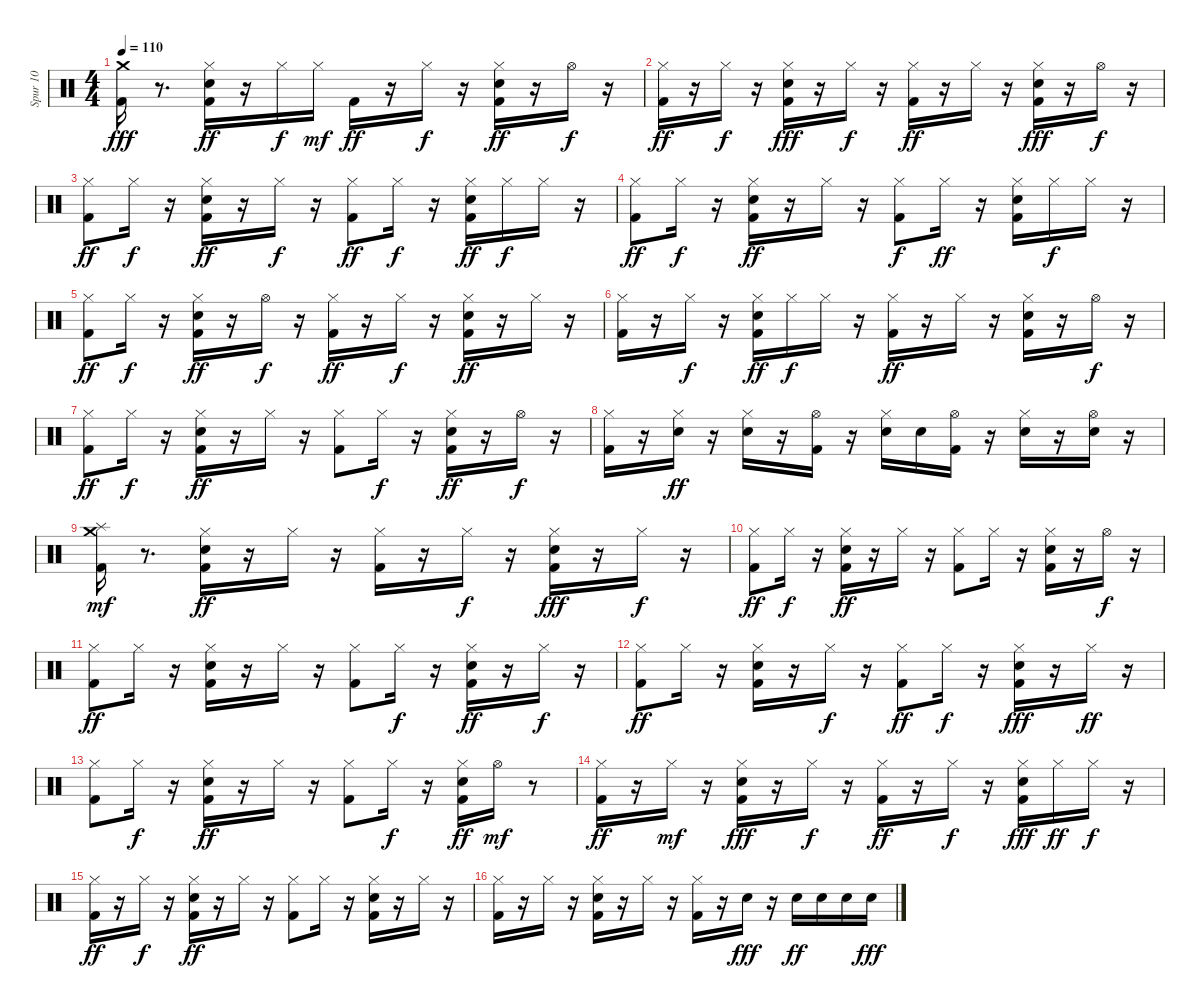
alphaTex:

\track ("Spur 10" "Spur 10") {instrument percussion}
\staff {score}
\articulation defaults
\ts (4 4)
\tempo 110
\clef neutral
\ks c
("Kick (hit) 2" "Crash medium (hit)").16{dy fff} r.8{d} ("Snare (hit) 2" "Hi-Hat (closed)" "Kick (hit) 2").16{dy ff} r.16 "Hi-Hat (closed)".16{dy f} "Hi-Hat (closed)".16{dy mf} "Kick (hit) 2".16{dy ff} r.16 "Hi-Hat (closed)".16{dy f} r.16 ("Kick (hit) 2" "Snare (hit) 2" "Hi-Hat (closed)").16{dy ff} r.16 "Hi-Hat (open)".16{dy f} r.16 |
("Kick (hit) 2" "Hi-Hat (closed)").16{dy ff} r.16 "Hi-Hat (closed)".16{dy f} r.16 ("Kick (hit) 2" "Snare (hit) 2" "Hi-Hat (closed)").16{dy fff} r.16 "Hi-Hat (closed)".16{dy f} r.16 ("Hi-Hat (closed)" "Kick (hit) 2").16{dy ff} r.16 "Hi-Hat (closed)".16 r.16 ("Hi-Hat (closed)" "Snare (hit) 2" "Kick (hit) 2").16{dy fff} r.16 "Hi-Hat (open)".16{dy f} r.16 |
("Hi-Hat (closed)" "Kick (hit) 2").8{dy ff} "Hi-Hat (closed)".16{dy f} r.16 ("Kick (hit) 2" "Snare (hit) 2" "Hi-Hat (closed)").16{dy ff} r.16 "Hi-Hat (closed)".16{dy f} r.16 ("Kick (hit) 2" "Hi-Hat (closed)").8{dy ff} "Hi-Hat (closed)".16{dy f} r.16 ("Kick (hit) 2" "Snare (hit) 2" "Hi-Hat (closed)").16{dy ff} "Hi-Hat (closed)".16{dy f} "Hi-Hat (closed)".16 r.16 |
("Kick (hit) 2" "Hi-Hat (closed)").8{dy ff} "Hi-Hat (closed)".16{dy f} r.16 ("Kick (hit) 2" "Snare (hit) 2" "Hi-Hat (closed)").16{dy ff} r.16 "Hi-Hat (closed)".16 r.16 ("Hi-Hat (closed)" "Kick (hit) 2").8{dy f} "Hi-Hat (closed)".16{dy ff} r.16 ("Kick (hit) 2" "Snare (hit) 2" "Hi-Hat (closed)").16 "Hi-Hat (closed)".16{dy f} "Hi-Hat (closed)".16 r.16 |
("Kick (hit) 2" "Hi-Hat (closed)").8{dy ff} "Hi-Hat (closed)".16{dy f} r.16 ("Kick (hit) 2" "Snare (hit) 2" "Hi-Hat (closed)").16{dy ff} r.16 "Hi-Hat (open)".16{dy f} r.16 ("Kick (hit) 2" "Hi-Hat (closed)").16{dy ff} r.16 "Hi-Hat (closed)".16{dy f} r.16 ("Kick (hit) 2" "Snare (hit) 2" "Hi-Hat (closed)").16{dy ff} r.16 "Hi-Hat (closed)".16 r.16 |
("Kick (hit) 2" "Hi-Hat (closed)").16 r.16 "Hi-Hat (closed)".16{dy f} r.16 ("Kick (hit) 2" "Hi-Hat (closed)" "Snare (hit) 2").16{dy ff} "Hi-Hat (closed)".16{dy f} "Hi-Hat (closed)".16 r.16 ("Hi-Hat (closed)" "Kick (hit) 2").16{dy ff} r.16 "Hi-Hat (closed)".16 r.16 ("Kick (hit) 2" "Snare (hit) 2" "Hi-Hat (closed)").16 r.16 "Hi-Hat (open)".16{dy f} r.16 |
("Kick (hit) 2" "Hi-Hat (closed)").8{dy ff} "Hi-Hat (closed)".16{dy f} r.16 ("Kick (hit) 2" "Snare (hit) 2" "Hi-Hat (closed)").16{dy ff} r.16 "Hi-Hat (closed)".16 r.16 ("Kick (hit) 2" "Hi-Hat (closed)").8 "Hi-Hat (closed)".16{dy f} r.16 ("Snare (hit) 2" "Kick (hit) 2" "Hi-Hat (closed)").16{dy ff} r.16 "Hi-Hat (open)".16{dy f} r.16 |
("Kick (hit) 2" "Hi-Hat (closed)").16 r.16 ("Hi-Hat (closed)" "Snare (hit) 2").16{dy ff} r.16 ("Snare (hit) 2" "Hi-Hat (closed)").16 r.16 ("Kick (hit) 2" "Hi-Hat (open)").16 r.16 ("Hi-Hat (closed)" "Snare (hit) 2").16 "Snare (hit) 2".16 ("Kick (hit) 2" "Hi-Hat (open)").16 r.16 ("Snare (hit) 2" "Hi-Hat (closed)").16 r.16 ("Snare (hit) 2" "Hi-Hat (open)").16 r.16 |
("Crash medium (hit)" "Kick (hit) 2" "Splash (hit)").16{dy mf} r.8{d} ("Hi-Hat (closed)" "Snare (hit) 2" "Kick (hit) 2").16{dy ff} r.16 "Hi-Hat (closed)".16 r.16 ("Hi-Hat (closed)" "Kick (hit) 2").16 r.16 "Hi-Hat (closed)".16{dy f} r.16 ("Hi-Hat (closed)" "Kick (hit) 2" "Snare (hit) 2").16{dy fff} r.16 "Hi-Hat (closed)".16{dy f} r.16 |
("Kick (hit) 2" "Hi-Hat (closed)").8{dy ff} "Hi-Hat (closed)".16{dy f} r.16 ("Snare (hit) 2" "Kick (hit) 2" "Hi-Hat (closed)").16{dy ff} r.16 "Hi-Hat (closed)".16 r.16 ("Kick (hit) 2" "Hi-Hat (closed)").8 "Hi-Hat (closed)".16 r.16 ("Snare (hit) 2" "Kick (hit) 2" "Hi-Hat (closed)").16 r.16 "Hi-Hat (open)".16{dy f} r.16 |
("Kick (hit) 2" "Hi-Hat (closed)").8{dy ff} "Hi-Hat (closed)".16 r.16 ("Kick (hit) 2" "Snare (hit) 2" "Hi-Hat (closed)").16 r.16 "Hi-Hat (closed)".16 r.16 ("Hi-Hat (closed)" "Kick (hit) 2").8 "Hi-Hat (closed)".16{dy f} r.16 ("Snare (hit) 2" "Kick (hit) 2" "Hi-Hat (closed)").16{dy ff} r.16 "Hi-Hat (closed)".16{dy f} r.16 |
("Hi-Hat (closed)" "Kick (hit) 2").8{dy ff} "Hi-Hat (closed)".16 r.16 ("Snare (hit) 2" "Kick (hit) 2" "Hi-Hat (closed)").16 r.16 "Hi-Hat (closed)".16{dy f} r.16 ("Kick (hit) 2" "Hi-Hat (closed)").8{dy ff} "Hi-Hat (closed)".16{dy f} r.16 ("Kick (hit) 2" "Snare (hit) 2" "Hi-Hat (closed)").16{dy fff} r.16 "Hi-Hat (closed)".16{dy ff} r.16 |
("Kick (hit) 2" "Hi-Hat (closed)").8 "Hi-Hat (closed)".16{dy f} r.16 ("Kick (hit) 2" "Snare (hit) 2" "Hi-Hat (closed)").16{dy ff} r.16 "Hi-Hat (closed)".16 r.16 ("Kick (hit) 2" "Hi-Hat (closed)").8 "Hi-Hat (closed)".16{dy f} r.16 ("Snare (hit) 2" "Kick (hit) 2" "Hi-Hat (closed)").16{dy ff} "Hi-Hat (open)".16{dy mf} r.8 |
("Kick (hit) 2" "Hi-Hat (closed)").16{dy ff} r.16 "Hi-Hat (closed)".16{dy mf} r.16 ("Kick (hit) 2" "Hi-Hat (closed)" "Snare (hit) 2").16{dy fff} r.16 "Hi-Hat (closed)".16{dy f} r.16 ("Kick (hit) 2" "Hi-Hat (closed)").16{dy ff} r.16 "Hi-Hat (closed)".16{dy f} r.16 ("Hi-Hat (closed)" "Snare (hit) 2" "Kick (hit) 2").16{dy fff} "Hi-Hat (closed)".16{dy ff} "Hi-Hat (closed)".16{dy f} r.16 |
("Kick (hit) 2" "Hi-Hat (closed)").16{dy ff} r.16 "Hi-Hat (closed)".16{dy f} r.16 ("Kick (hit) 2" "Snare (hit) 2" "Hi-Hat (closed)").16{dy ff} r.16 "Hi-Hat (closed)".16 r.16 ("Kick (hit) 2" "Hi-Hat (closed)").8 "Hi-Hat (closed)".16 r.16 ("Snare (hit) 2" "Kick (hit) 2" "Hi-Hat (closed)").16 r.16 "Hi-Hat (closed)".16 r.16 |
("Kick (hit) 2" "Hi-Hat (closed)").16 r.16 "Hi-Hat (closed)".16 r.16 ("Snare (hit) 2" "Hi-Hat (closed)" "Kick (hit) 2").16 r.16 "Hi-Hat (closed)".16 r.16 ("Kick (hit) 2" "Hi-Hat (closed)").16 r.16 "Snare (hit) 2".16{dy fff} r.16 "Snare (hit) 2".16{dy ff} "Snare (hit) 2".16 "Snare (hit) 2".16 "Snare (hit) 2".16{dy fff}
